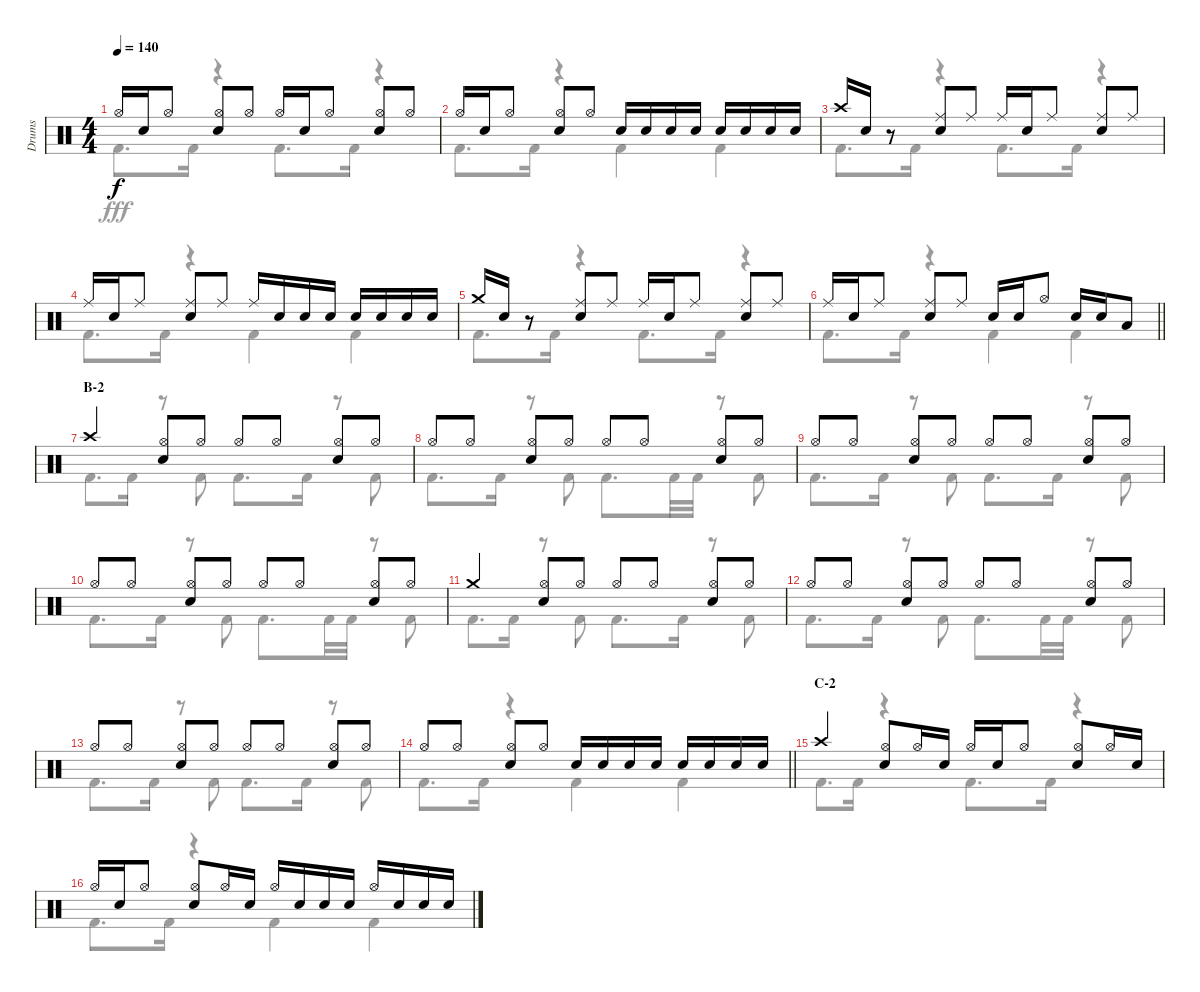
\track ("Drums" "Drums") {instrument percussion}
\staff {score}
\articulation defaults
\voice
\ts (4 4)
\tempo 140
\clef neutral
\ks c "Hi-Hat (open)".16{dy f} "Snare (hit) 2".16 "Hi-Hat (open)".8
("Hi-Hat (open)" "Snare (hit) 2").8 "Hi-Hat (open)".8 "Hi-Hat (open)".16 "Snare (hit) 2".16 "Hi-Hat (open)".8 ("Hi-Hat (open)" "Snare (hit) 2").8 "Hi-Hat (open)".8 |
"Hi-Hat (open)".16 "Snare (hit) 2".16 "Hi-Hat (open)".8 ("Hi-Hat (open)" "Snare (hit) 2").8 "Hi-Hat (open)".8 "Snare (hit) 2".16 "Snare (hit) 2".16 "Snare (hit) 2".16 "Snare (hit) 2".16 "Snare (hit) 2".16 "Snare (hit) 2".16 "Snare (hit) 2".16 "Snare (hit) 2".16 |
"Crash high (hit)".16 "Snare (hit) 2".16 r.8 ("Ride (middle)" "Snare (hit) 2").8 "Ride (middle)".8 "Ride (middle)".16 "Snare (hit) 2".16 "Ride (middle)".8 ("Ride (middle)" "Snare (hit) 2").8 "Ride (middle)".8 |
"Ride (middle)".16 "Snare (hit) 2".16 "Ride (middle)".8 ("Ride (middle)" "Snare (hit) 2").8 "Ride (middle)".8 "Ride (middle)".16 "Snare (hit) 2".16 "Snare (hit) 2".16 "Snare (hit) 2".16 "Snare (hit) 2".16 "Snare (hit) 2".16 "Snare (hit) 2".16 "Snare (hit) 2".16 |
"Crash medium (hit)".16 "Snare (hit) 2".16 r.8 ("Ride (middle)" "Snare (hit) 2").8 "Ride (middle)".8 "Ride (middle)".16 "Snare (hit) 2".16 "Ride (middle)".8 ("Ride (middle)" "Snare (hit) 2").8 "Ride (middle)".8 |
\barLineRight lightlight "Ride (middle)".16 "Snare (hit) 2".16 "Ride (middle)".8
("Ride (middle)" "Snare (hit) 2").8 "Ride (middle)".8 "Snare (hit) 2".16 "Snare (hit) 2".16 "Hi-Hat (open)".8 "Snare (hit) 2".16 "Snare (hit) 2".16 "Low Tom (hit)".8 |
\section ("" "B-2")
"Crash high (hit)".4 ("Hi-Hat (open)" "Snare (hit) 2").8 "Hi-Hat (open)".8 "Hi-Hat (open)".8 "Hi-Hat (open)".8 ("Hi-Hat (open)" "Snare (hit) 2").8 "Hi-Hat (open)".8 |
"Hi-Hat (open)".8 "Hi-Hat (open)".8 ("Hi-Hat (open)" "Snare (hit) 2").8 "Hi-Hat (open)".8 "Hi-Hat (open)".8 "Hi-Hat (open)".8 ("Hi-Hat (open)" "Snare (hit) 2").8 "Hi-Hat (open)".8 |
"Hi-Hat (open)".8 "Hi-Hat (open)".8 ("Hi-Hat (open)" "Snare (hit) 2").8 "Hi-Hat (open)".8 "Hi-Hat (open)".8 "Hi-Hat (open)".8 ("Hi-Hat (open)" "Snare (hit) 2").8 "Hi-Hat (open)".8 |
"Hi-Hat (open)".8 "Hi-Hat (open)".8 ("Hi-Hat (open)" "Snare (hit) 2").8 "Hi-Hat (open)".8 "Hi-Hat (open)".8 "Hi-Hat (open)".8 ("Hi-Hat (open)" "Snare (hit) 2").8 "Hi-Hat (open)".8 |
"Crash medium (hit)".4 ("Hi-Hat (open)" "Snare (hit) 2").8 "Hi-Hat (open)".8 "Hi-Hat (open)".8 "Hi-Hat (open)".8 ("Hi-Hat (open)" "Snare (hit) 2").8 "Hi-Hat (open)".8 |
"Hi-Hat (open)".8 "Hi-Hat (open)".8 ("Hi-Hat (open)" "Snare (hit) 2").8 "Hi-Hat (open)".8 "Hi-Hat (open)".8 "Hi-Hat (open)".8 ("Hi-Hat (open)" "Snare (hit) 2").8 "Hi-Hat (open)".8 |
"Hi-Hat (open)".8 "Hi-Hat (open)".8 ("Hi-Hat (open)" "Snare (hit) 2").8 "Hi-Hat (open)".8 "Hi-Hat (open)".8 "Hi-Hat (open)".8 ("Hi-Hat (open)" "Snare (hit) 2").8 "Hi-Hat (open)".8 |
\barLineRight lightlight "Hi-Hat (open)".8 "Hi-Hat (open)".8
("Hi-Hat (open)" "Snare (hit) 2").8 "Hi-Hat (open)".8 "Snare (hit) 2".16 "Snare (hit) 2".16 "Snare (hit) 2".16 "Snare (hit) 2".16 "Snare (hit) 2".16 "Snare (hit) 2".16 "Snare (hit) 2".16 "Snare (hit) 2".16 |
\section ("" "C-2")
"Crash high (hit)".4 ("Hi-Hat (open)" "Snare (hit) 2").8 "Hi-Hat (open)".16 "Snare (hit) 2".16 "Hi-Hat (open)".16 "Snare (hit) 2".16 "Hi-Hat (open)".8 ("Hi-Hat (open)" "Snare (hit) 2").8 "Hi-Hat (open)".16 "Snare (hit) 2".16 |
"Hi-Hat (open)".16 "Snare (hit) 2".16 "Hi-Hat (open)".8 ("Hi-Hat (open)" "Snare (hit) 2").8 "Hi-Hat (open)".16 "Snare (hit) 2".16 "Hi-Hat (open)".16 "Snare (hit) 2".16 "Snare (hit) 2".16 "Snare (hit) 2".16 "Hi-Hat (open)".16 "Snare (hit) 2".16 "Snare (hit) 2".16 "Snare (hit) 2".16
\voice
\clef neutral
\ottava regular
\simile none
\ks c "Kick (hit) 2".8{d dy fff} "Kick (hit) 2".16
r.4 "Kick (hit) 2".8{d} "Kick (hit) 2".16 r.4 |
"Kick (hit) 2".8{d} "Kick (hit) 2".16 r.4 "Kick (hit) 2".4 "Kick (hit) 2".4 |
"Kick (hit) 2".8{d} "Kick (hit) 2".16 r.4 "Kick (hit) 2".8{d} "Kick (hit) 2".16 r.4 |
"Kick (hit) 2".8{d} "Kick (hit) 2".16 r.4 "Kick (hit) 2".4 "Kick (hit) 2".4 |
"Kick (hit) 2".8{d} "Kick (hit) 2".16 r.4 "Kick (hit) 2".8{d} "Kick (hit) 2".16 r.4 |
\barLineRight lightlight "Kick (hit) 2".8{d} "Kick (hit) 2".16
r.4 "Kick (hit) 2".4 "Kick (hit) 2".4 |
"Kick (hit) 2".8{d} "Kick (hit) 2".16 r.8 "Kick (hit) 2".8 "Kick (hit) 2".8{d} "Kick (hit) 2".16 r.8 "Kick (hit) 2".8 |
"Kick (hit) 2".8{d} "Kick (hit) 2".16 r.8 "Kick (hit) 2".8 "Kick (hit) 2".8{d} "Kick (hit) 2".32 "Kick (hit) 2".32 r.8 "Kick (hit) 2".8 |
"Kick (hit) 2".8{d} "Kick (hit) 2".16 r.8 "Kick (hit) 2".8 "Kick (hit) 2".8{d} "Kick (hit) 2".16 r.8 "Kick (hit) 2".8 |
"Kick (hit) 2".8{d} "Kick (hit) 2".16 r.8 "Kick (hit) 2".8 "Kick (hit) 2".8{d} "Kick (hit) 2".32 "Kick (hit) 2".32 r.8 "Kick (hit) 2".8 |
"Kick (hit) 2".8{d} "Kick (hit) 2".16 r.8 "Kick (hit) 2".8 "Kick (hit) 2".8{d} "Kick (hit) 2".16 r.8 "Kick (hit) 2".8 |
"Kick (hit) 2".8{d} "Kick (hit) 2".16 r.8 "Kick (hit) 2".8 "Kick (hit) 2".8{d} "Kick (hit) 2".32 "Kick (hit) 2".32 r.8 "Kick (hit) 2".8 |
"Kick (hit) 2".8{d} "Kick (hit) 2".16 r.8 "Kick (hit) 2".8 "Kick (hit) 2".8{d} "Kick (hit) 2".16 r.8 "Kick (hit) 2".8 |
\barLineRight lightlight "Kick (hit) 2".8{d} "Kick (hit) 2".16
r.4 "Kick (hit) 2".4 "Kick (hit) 2".4 |
"Kick (hit) 2".8{d} "Kick (hit) 2".16 r.4 "Kick (hit) 2".8{d} "Kick (hit) 2".16 r.4 |
"Kick (hit) 2".8{d} "Kick (hit) 2".16 r.4 "Kick (hit) 2".4 "Kick (hit) 2".4
